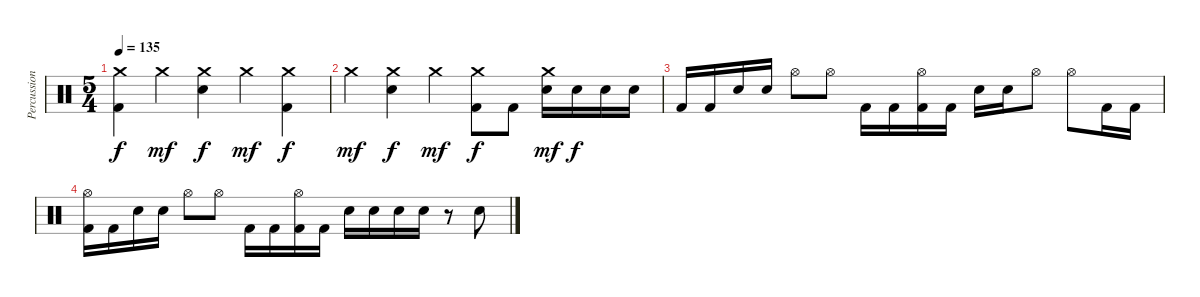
\track ("Percussion" "Percussion") {instrument percussion}
\staff {score}
\articulation defaults
\ts (5 4)
\tempo 135
\clef neutral
\ks c
("Crash medium (hit)" "Kick (hit) 2").4{dy f} "Crash medium (hit)".4{dy mf} ("Crash medium (hit)" "Snare (hit) 2").4{dy f} "Crash medium (hit)".4{dy mf} ("Crash medium (hit)" "Kick (hit) 2").4{dy f} |
"Crash medium (hit)".4{dy mf} ("Crash medium (hit)" "Snare (hit) 2").4{dy f} "Crash medium (hit)".4{dy mf} ("Crash medium (hit)" "Kick (hit) 2").8{dy f} "Kick (hit) 2".8 ("Crash medium (hit)" "Snare (hit) 2").16{dy mf} "Snare (hit) 2".16{dy f} "Snare (hit) 2".16 "Snare (hit) 2".16 |
"Kick (hit) 2".16 "Kick (hit) 2".16 "Snare (hit) 2".16 "Snare (hit) 2".16 "Hi-Hat (open)".8 "Hi-Hat (open)".8 "Kick (hit) 2".16 "Kick (hit) 2".16 ("Hi-Hat (open)" "Kick (hit) 2").16 "Kick (hit) 2".16 "Snare (hit) 2".16 "Snare (hit) 2".16 "Hi-Hat (open)".8 "Hi-Hat (open)".8 "Kick (hit) 2".16 "Kick (hit) 2".16 |
("Hi-Hat (open)" "Kick (hit) 2").16 "Kick (hit) 2".16 "Snare (hit) 2".16 "Snare (hit) 2".16 "Hi-Hat (open)".8 "Hi-Hat (open)".8 "Kick (hit) 2".16 "Kick (hit) 2".16 ("Hi-Hat (open)" "Kick (hit) 2").16 "Kick (hit) 2".16 "Snare (hit) 2".16 "Snare (hit) 2".16 "Snare (hit) 2".16 "Snare (hit) 2".16 r.8 "Snare (hit) 2".8
